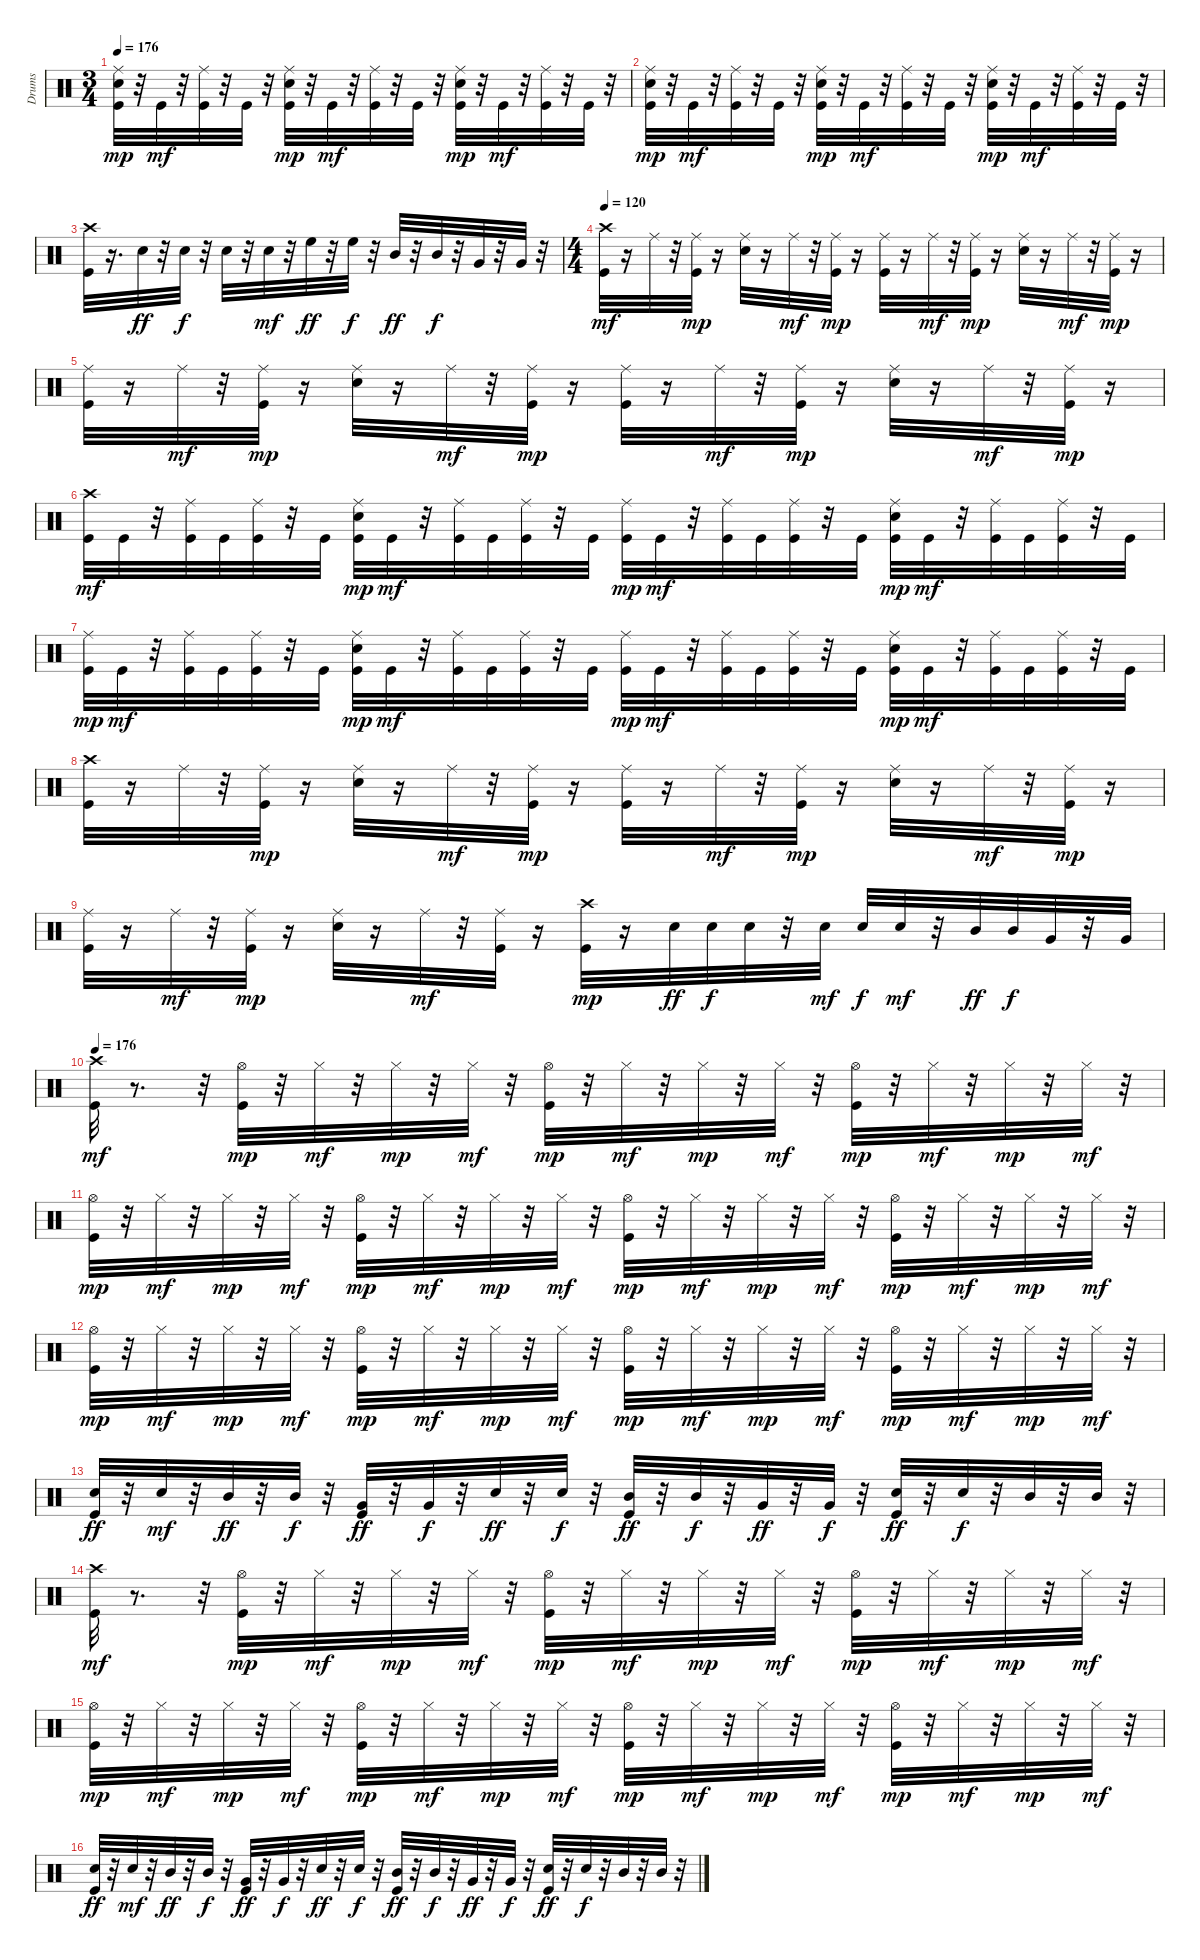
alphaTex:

\track ("Drums" "Drums") {instrument percussion}
\staff {score}
\articulation defaults
\ts (3 4)
\tempo 176
\clef neutral
\ks c
("Kick (hit)" "Snare (hit) 2" "Ride (middle)").32{dy mp} r.32 "Kick (hit)".32{dy mf} r.32 ("Kick (hit)" "Ride (middle)").32 r.32 "Kick (hit)".32 r.32 ("Kick (hit)" "Snare (hit) 2" "Ride (middle)").32{dy mp} r.32 "Kick (hit)".32{dy mf} r.32 ("Kick (hit)" "Ride (middle)").32 r.32 "Kick (hit)".32 r.32 ("Kick (hit)" "Snare (hit) 2" "Ride (middle)").32{dy mp} r.32 "Kick (hit)".32{dy mf} r.32 ("Kick (hit)" "Ride (middle)").32 r.32 "Kick (hit)".32 r.32 |
("Kick (hit)" "Snare (hit) 2" "Ride (middle)").32{dy mp} r.32 "Kick (hit)".32{dy mf} r.32 ("Kick (hit)" "Ride (middle)").32 r.32 "Kick (hit)".32 r.32 ("Kick (hit)" "Snare (hit) 2" "Ride (middle)").32{dy mp} r.32 "Kick (hit)".32{dy mf} r.32 ("Kick (hit)" "Ride (middle)").32 r.32 "Kick (hit)".32 r.32 ("Kick (hit)" "Snare (hit) 2" "Ride (middle)").32{dy mp} r.32 "Kick (hit)".32{dy mf} r.32 ("Kick (hit)" "Ride (middle)").32 r.32 "Kick (hit)".32 r.32 |
("Kick (hit)" "Crash high (hit)").32 r.16{d} "Snare (hit) 2".32{dy ff} r.32 "Snare (hit) 2".32{dy f} r.32 "Snare (hit) 2".32 r.32 "Snare (hit) 2".32{dy mf} r.32 "High Floor Tom (hit)".32{dy ff} r.32 "High Floor Tom (hit)".32{dy f} r.32 "Mid Tom (hit)".32{dy ff} r.32 "Mid Tom (hit)".32{dy f} r.32 "Very Low Tom (hit)".32 r.32 "Very Low Tom (hit)".32 r.32 |
\ts (4 4)
\tempo 120
("Kick (hit)" "Crash high (hit)").32{dy mf} r.16 "Ride (middle)".32 r.32 ("Kick (hit)" "Ride (middle)").32{dy mp} r.16 ("Snare (hit) 2" "Ride (middle)").32 r.16 "Ride (middle)".32{dy mf} r.32 ("Kick (hit)" "Ride (middle)").32{dy mp} r.16 ("Kick (hit)" "Ride (middle)").32 r.16 "Ride (middle)".32{dy mf} r.32 ("Kick (hit)" "Ride (middle)").32{dy mp} r.16 ("Snare (hit) 2" "Ride (middle)").32 r.16 "Ride (middle)".32{dy mf} r.32 ("Kick (hit)" "Ride (middle)").32{dy mp} r.16 |
("Kick (hit)" "Ride (middle)").32 r.16 "Ride (middle)".32{dy mf} r.32 ("Kick (hit)" "Ride (middle)").32{dy mp} r.16 ("Snare (hit) 2" "Ride (middle)").32 r.16 "Ride (middle)".32{dy mf} r.32 ("Kick (hit)" "Ride (middle)").32{dy mp} r.16 ("Kick (hit)" "Ride (middle)").32 r.16 "Ride (middle)".32{dy mf} r.32 ("Kick (hit)" "Ride (middle)").32{dy mp} r.16 ("Snare (hit) 2" "Ride (middle)").32 r.16 "Ride (middle)".32{dy mf} r.32 ("Kick (hit)" "Ride (middle)").32{dy mp} r.16 |
("Kick (hit)" "Crash high (hit)").32{dy mf} "Kick (hit)".32 r.32 ("Kick (hit)" "Ride (middle)").32 "Kick (hit)".32 ("Kick (hit)" "Ride (middle)").32 r.32 "Kick (hit)".32 ("Kick (hit)" "Snare (hit) 2" "Ride (middle)").32{dy mp} "Kick (hit)".32{dy mf} r.32 ("Kick (hit)" "Ride (middle)").32 "Kick (hit)".32 ("Kick (hit)" "Ride (middle)").32 r.32 "Kick (hit)".32 ("Kick (hit)" "Ride (middle)").32{dy mp} "Kick (hit)".32{dy mf} r.32 ("Kick (hit)" "Ride (middle)").32 "Kick (hit)".32 ("Kick (hit)" "Ride (middle)").32 r.32 "Kick (hit)".32 ("Kick (hit)" "Snare (hit) 2" "Ride (middle)").32{dy mp} "Kick (hit)".32{dy mf} r.32 ("Kick (hit)" "Ride (middle)").32 "Kick (hit)".32 ("Kick (hit)" "Ride (middle)").32 r.32 "Kick (hit)".32 |
("Kick (hit)" "Ride (middle)").32{dy mp} "Kick (hit)".32{dy mf} r.32 ("Kick (hit)" "Ride (middle)").32 "Kick (hit)".32 ("Kick (hit)" "Ride (middle)").32 r.32 "Kick (hit)".32 ("Kick (hit)" "Snare (hit) 2" "Ride (middle)").32{dy mp} "Kick (hit)".32{dy mf} r.32 ("Kick (hit)" "Ride (middle)").32 "Kick (hit)".32 ("Kick (hit)" "Ride (middle)").32 r.32 "Kick (hit)".32 ("Kick (hit)" "Ride (middle)").32{dy mp} "Kick (hit)".32{dy mf} r.32 ("Kick (hit)" "Ride (middle)").32 "Kick (hit)".32 ("Kick (hit)" "Ride (middle)").32 r.32 "Kick (hit)".32 ("Kick (hit)" "Snare (hit) 2" "Ride (middle)").32{dy mp} "Kick (hit)".32{dy mf} r.32 ("Kick (hit)" "Ride (middle)").32 "Kick (hit)".32 ("Kick (hit)" "Ride (middle)").32 r.32 "Kick (hit)".32 |
("Kick (hit)" "Crash high (hit)").32 r.16 "Ride (middle)".32 r.32 ("Kick (hit)" "Ride (middle)").32{dy mp} r.16 ("Snare (hit) 2" "Ride (middle)").32 r.16 "Ride (middle)".32{dy mf} r.32 ("Kick (hit)" "Ride (middle)").32{dy mp} r.16 ("Kick (hit)" "Ride (middle)").32 r.16 "Ride (middle)".32{dy mf} r.32 ("Kick (hit)" "Ride (middle)").32{dy mp} r.16 ("Snare (hit) 2" "Ride (middle)").32 r.16 "Ride (middle)".32{dy mf} r.32 ("Kick (hit)" "Ride (middle)").32{dy mp} r.16 |
("Kick (hit)" "Ride (middle)").32 r.16 "Ride (middle)".32{dy mf} r.32 ("Kick (hit)" "Ride (middle)").32{dy mp} r.16 ("Snare (hit) 2" "Ride (middle)").32 r.16 "Ride (middle)".32{dy mf} r.32 ("Kick (hit)" "Ride (middle)").32 r.16 ("Kick (hit)" "Crash high (hit)").32{dy mp} r.16 "Snare (hit) 2".32{dy ff} "Snare (hit) 2".32{dy f} "Snare (hit) 2".32 r.32 "Snare (hit) 2".32{dy mf} "Snare (hit) 2".32{dy f} "Snare (hit) 2".32{dy mf} r.32 "Mid Tom (hit)".32{dy ff} "Mid Tom (hit)".32{dy f} "Very Low Tom (hit)".32 r.32 "Very Low Tom (hit)".32 |
\tempo 176
("Kick (hit)" "Crash high (hit)").32{dy mf} r.8{d} r.32 ("Kick (hit)" "Hi-Hat (open)").32{dy mp} r.32 "Hi-Hat (closed)".32{dy mf} r.32 "Hi-Hat (closed)".32{dy mp} r.32 "Hi-Hat (closed)".32{dy mf} r.32 ("Kick (hit)" "Hi-Hat (open)").32{dy mp} r.32 "Hi-Hat (closed)".32{dy mf} r.32 "Hi-Hat (closed)".32{dy mp} r.32 "Hi-Hat (closed)".32{dy mf} r.32 ("Kick (hit)" "Hi-Hat (open)").32{dy mp} r.32 "Hi-Hat (closed)".32{dy mf} r.32 "Hi-Hat (closed)".32{dy mp} r.32 "Hi-Hat (closed)".32{dy mf} r.32 |
("Kick (hit)" "Hi-Hat (open)").32{dy mp} r.32 "Hi-Hat (closed)".32{dy mf} r.32 "Hi-Hat (closed)".32{dy mp} r.32 "Hi-Hat (closed)".32{dy mf} r.32 ("Kick (hit)" "Hi-Hat (open)").32{dy mp} r.32 "Hi-Hat (closed)".32{dy mf} r.32 "Hi-Hat (closed)".32{dy mp} r.32 "Hi-Hat (closed)".32{dy mf} r.32 ("Kick (hit)" "Hi-Hat (open)").32{dy mp} r.32 "Hi-Hat (closed)".32{dy mf} r.32 "Hi-Hat (closed)".32{dy mp} r.32 "Hi-Hat (closed)".32{dy mf} r.32 ("Kick (hit)" "Hi-Hat (open)").32{dy mp} r.32 "Hi-Hat (closed)".32{dy mf} r.32 "Hi-Hat (closed)".32{dy mp} r.32 "Hi-Hat (closed)".32{dy mf} r.32 |
("Kick (hit)" "Hi-Hat (open)").32{dy mp} r.32 "Hi-Hat (closed)".32{dy mf} r.32 "Hi-Hat (closed)".32{dy mp} r.32 "Hi-Hat (closed)".32{dy mf} r.32 ("Kick (hit)" "Hi-Hat (open)").32{dy mp} r.32 "Hi-Hat (closed)".32{dy mf} r.32 "Hi-Hat (closed)".32{dy mp} r.32 "Hi-Hat (closed)".32{dy mf} r.32 ("Kick (hit)" "Hi-Hat (open)").32{dy mp} r.32 "Hi-Hat (closed)".32{dy mf} r.32 "Hi-Hat (closed)".32{dy mp} r.32 "Hi-Hat (closed)".32{dy mf} r.32 ("Kick (hit)" "Hi-Hat (open)").32{dy mp} r.32 "Hi-Hat (closed)".32{dy mf} r.32 "Hi-Hat (closed)".32{dy mp} r.32 "Hi-Hat (closed)".32{dy mf} r.32 |
("Kick (hit)" "Snare (hit) 2").32{dy ff} r.32 "Snare (hit) 2".32{dy mf} r.32 "Mid Tom (hit)".32{dy ff} r.32 "Mid Tom (hit)".32{dy f} r.32 ("Kick (hit)" "Very Low Tom (hit)").32{dy ff} r.32 "Very Low Tom (hit)".32{dy f} r.32 "Snare (hit) 2".32{dy ff} r.32 "Snare (hit) 2".32{dy f} r.32 ("Kick (hit)" "Mid Tom (hit)").32{dy ff} r.32 "Mid Tom (hit)".32{dy f} r.32 "Very Low Tom (hit)".32{dy ff} r.32 "Very Low Tom (hit)".32{dy f} r.32 ("Kick (hit)" "Snare (hit) 2").32{dy ff} r.32 "Snare (hit) 2".32{dy f} r.32 "Mid Tom (hit)".32 r.32 "Mid Tom (hit)".32 r.32 |
("Kick (hit)" "Crash high (hit)").32{dy mf} r.8{d} r.32 ("Kick (hit)" "Hi-Hat (open)").32{dy mp} r.32 "Hi-Hat (closed)".32{dy mf} r.32 "Hi-Hat (closed)".32{dy mp} r.32 "Hi-Hat (closed)".32{dy mf} r.32 ("Kick (hit)" "Hi-Hat (open)").32{dy mp} r.32 "Hi-Hat (closed)".32{dy mf} r.32 "Hi-Hat (closed)".32{dy mp} r.32 "Hi-Hat (closed)".32{dy mf} r.32 ("Kick (hit)" "Hi-Hat (open)").32{dy mp} r.32 "Hi-Hat (closed)".32{dy mf} r.32 "Hi-Hat (closed)".32{dy mp} r.32 "Hi-Hat (closed)".32{dy mf} r.32 |
("Kick (hit)" "Hi-Hat (open)").32{dy mp} r.32 "Hi-Hat (closed)".32{dy mf} r.32 "Hi-Hat (closed)".32{dy mp} r.32 "Hi-Hat (closed)".32{dy mf} r.32 ("Kick (hit)" "Hi-Hat (open)").32{dy mp} r.32 "Hi-Hat (closed)".32{dy mf} r.32 "Hi-Hat (closed)".32{dy mp} r.32 "Hi-Hat (closed)".32{dy mf} r.32 ("Kick (hit)" "Hi-Hat (open)").32{dy mp} r.32 "Hi-Hat (closed)".32{dy mf} r.32 "Hi-Hat (closed)".32{dy mp} r.32 "Hi-Hat (closed)".32{dy mf} r.32 ("Kick (hit)" "Hi-Hat (open)").32{dy mp} r.32 "Hi-Hat (closed)".32{dy mf} r.32 "Hi-Hat (closed)".32{dy mp} r.32 "Hi-Hat (closed)".32{dy mf} r.32 |
("Kick (hit)" "Snare (hit) 2").32{dy ff} r.32 "Snare (hit) 2".32{dy mf} r.32 "Mid Tom (hit)".32{dy ff} r.32 "Mid Tom (hit)".32{dy f} r.32 ("Kick (hit)" "Very Low Tom (hit)").32{dy ff} r.32 "Very Low Tom (hit)".32{dy f} r.32 "Snare (hit) 2".32{dy ff} r.32 "Snare (hit) 2".32{dy f} r.32 ("Kick (hit)" "Mid Tom (hit)").32{dy ff} r.32 "Mid Tom (hit)".32{dy f} r.32 "Very Low Tom (hit)".32{dy ff} r.32 "Very Low Tom (hit)".32{dy f} r.32 ("Kick (hit)" "Snare (hit) 2").32{dy ff} r.32 "Snare (hit) 2".32{dy f} r.32 "Mid Tom (hit)".32 r.32 "Mid Tom (hit)".32 r.32
